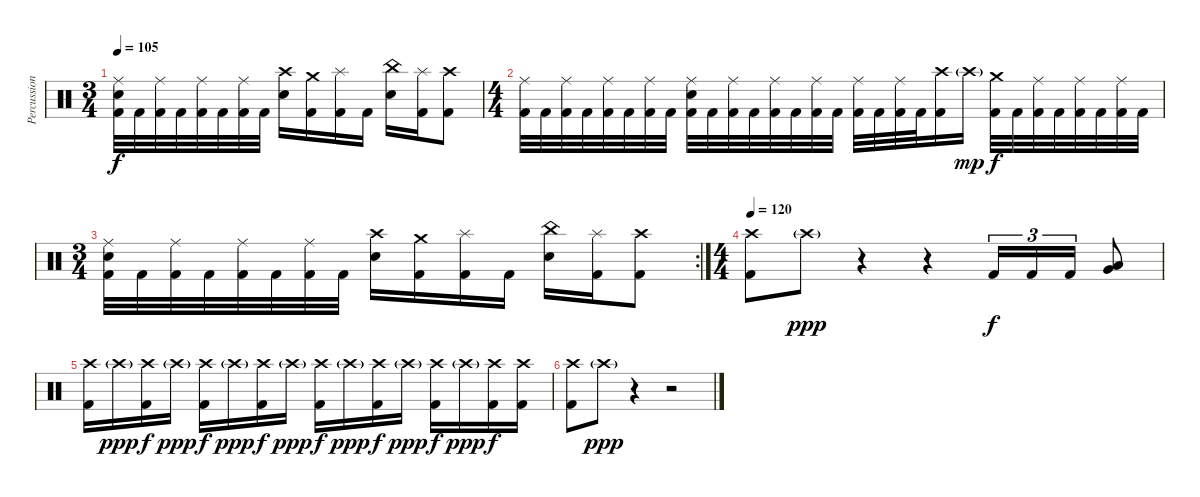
\track ("Percussioni" "Percussion") {instrument percussion}
\staff {score}
\articulation defaults
\ts (3 4)
\tempo 105
\clef neutral
\ks c
("Ride (middle)" "Electric Snare (hit)" "Kick (hit) 2").32{dy f} "Kick (hit) 2".32 ("Ride (middle)" "Kick (hit) 2").32 "Kick (hit) 2".32 ("Ride (middle)" "Kick (hit) 2").32 "Kick (hit) 2".32 ("Ride (middle)" "Kick (hit) 2").32 "Kick (hit) 2".32 ("Crash high (hit)" "Electric Snare (hit)").16 ("Crash medium (hit)" "Kick (hit) 2").16 ("Splash (hit)" "Kick (hit) 2").16 "Kick (hit) 2".16 ("China (hit)" "Electric Snare (hit)").16 ("Splash (hit)" "Kick (hit) 2").16 ("Crash high (hit)" "Kick (hit) 2").8 |
\ts (4 4)
("Ride (middle)" "Kick (hit) 2").32 "Kick (hit) 2".32 ("Ride (middle)" "Kick (hit) 2").32 "Kick (hit) 2".32 ("Ride (middle)" "Kick (hit) 2").32 "Kick (hit) 2".32 ("Ride (middle)" "Kick (hit) 2").32 "Kick (hit) 2".32 ("Ride (middle)" "Electric Snare (hit)" "Kick (hit) 2").32 "Kick (hit) 2".32 ("Ride (middle)" "Kick (hit) 2").32 "Kick (hit) 2".32 ("Ride (middle)" "Kick (hit) 2").32 "Kick (hit) 2".32 ("Ride (middle)" "Kick (hit) 2").32 "Kick (hit) 2".32 ("Ride (middle)" "Kick (hit) 2").32 "Kick (hit) 2".32 ("Ride (middle)" "Kick (hit) 2").32 "Kick (hit) 2".32 ("Crash high (hit)" "Kick (hit) 2").16 "Crash high (hit)"{g}.16{dy mp volume 0} ("Crash medium (hit)" "Kick (hit) 2").32{dy f volume 14} "Kick (hit) 2".32 ("Ride (middle)" "Kick (hit) 2").32 "Kick (hit) 2".32 ("Ride (middle)" "Kick (hit) 2").32 "Kick (hit) 2".32 ("Ride (middle)" "Kick (hit) 2").32 "Kick (hit) 2".32 |
\rc 2
\ts (3 4)
("Ride (middle)" "Electric Snare (hit)" "Kick (hit) 2").32 "Kick (hit) 2".32 ("Ride (middle)" "Kick (hit) 2").32 "Kick (hit) 2".32 ("Ride (middle)" "Kick (hit) 2").32 "Kick (hit) 2".32 ("Ride (middle)" "Kick (hit) 2").32 "Kick (hit) 2".32 ("Crash high (hit)" "Electric Snare (hit)").16 ("Crash medium (hit)" "Kick (hit) 2").16 ("Splash (hit)" "Kick (hit) 2").16 "Kick (hit) 2".16 ("China (hit)" "Electric Snare (hit)").16 ("Splash (hit)" "Kick (hit) 2").16 ("Crash high (hit)" "Kick (hit) 2").8 |
\ts (4 4)
\tempo 120
("Crash high (hit)" "Kick (hit) 2").8 "Crash high (hit)"{g}.8{dy ppp} r.4 r.4 "Kick (hit) 2".16{tu (3 2) dy f} "Kick (hit) 2".16{tu (3 2)} "Kick (hit) 2".16{tu (3 2)} ("Very Low Tom (hit)" "Low Floor Tom (hit)").8 |
("Crash high (hit)" "Kick (hit) 2").16 "Crash high (hit)"{g}.16{dy ppp} ("Crash high (hit)" "Kick (hit) 2").16{dy f} "Crash high (hit)"{g}.16{dy ppp} ("Crash high (hit)" "Kick (hit) 2").16{dy f} "Crash high (hit)"{g}.16{dy ppp} ("Crash high (hit)" "Kick (hit) 2").16{dy f} "Crash high (hit)"{g}.16{dy ppp} ("Crash high (hit)" "Kick (hit) 2").16{dy f} "Crash high (hit)"{g}.16{dy ppp} ("Crash high (hit)" "Kick (hit) 2").16{dy f} "Crash high (hit)"{g}.16{dy ppp} ("Crash high (hit)" "Kick (hit) 2").16{dy f} "Crash high (hit)"{g}.16{dy ppp} ("Crash high (hit)" "Kick (hit) 2").16{dy f} ("Crash high (hit)" "Kick (hit) 2").16 |
("Crash high (hit)" "Kick (hit) 2").8 "Crash high (hit)"{g}.8{dy ppp} r.4 r.2
